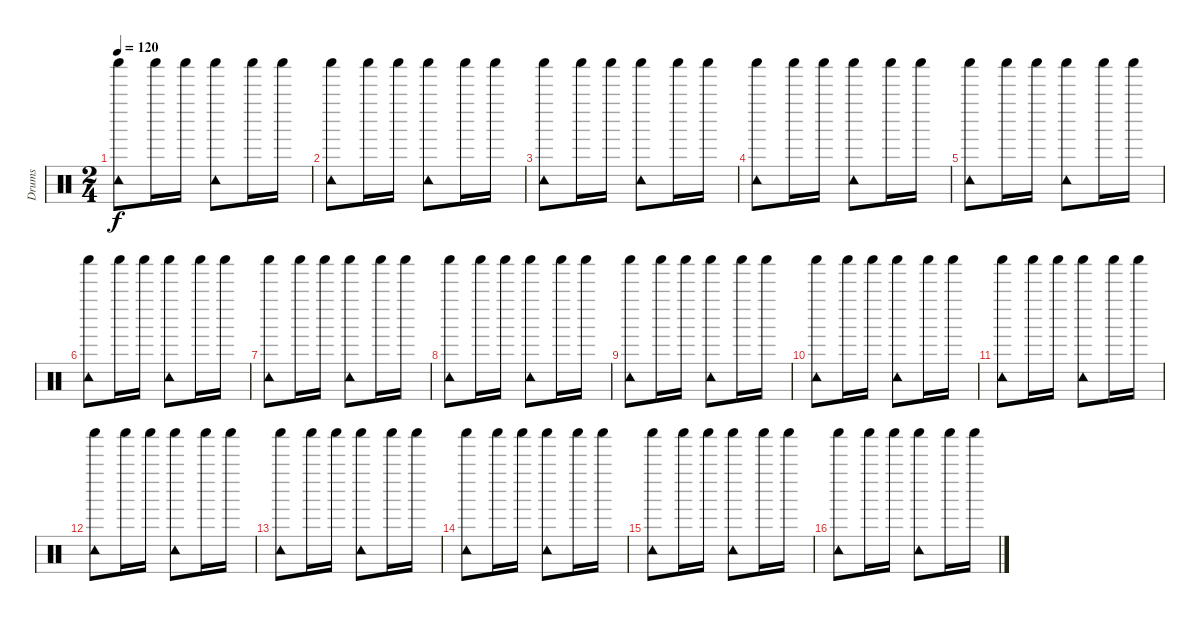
\track ("Drums" "Drums") {instrument percussion}
\staff {score}
\articulation defaults
\ts (2 4)
\tempo 120
\clef neutral
\ks c
("Shaker (hit)" "Tambourine (hit)").8{dy f} "Shaker (hit)".16 "Shaker (hit)".16 ("Shaker (hit)" "Tambourine (hit)").8 "Shaker (hit)".16 "Shaker (hit)".16 |
("Shaker (hit)" "Tambourine (hit)").8 "Shaker (hit)".16 "Shaker (hit)".16 ("Shaker (hit)" "Tambourine (hit)").8 "Shaker (hit)".16 "Shaker (hit)".16 |
("Shaker (hit)" "Tambourine (hit)").8 "Shaker (hit)".16 "Shaker (hit)".16 ("Shaker (hit)" "Tambourine (hit)").8 "Shaker (hit)".16 "Shaker (hit)".16 |
("Shaker (hit)" "Tambourine (hit)").8 "Shaker (hit)".16 "Shaker (hit)".16 ("Shaker (hit)" "Tambourine (hit)").8 "Shaker (hit)".16 "Shaker (hit)".16 |
("Shaker (hit)" "Tambourine (hit)").8 "Shaker (hit)".16 "Shaker (hit)".16 ("Shaker (hit)" "Tambourine (hit)").8 "Shaker (hit)".16 "Shaker (hit)".16 |
("Shaker (hit)" "Tambourine (hit)").8 "Shaker (hit)".16 "Shaker (hit)".16 ("Shaker (hit)" "Tambourine (hit)").8 "Shaker (hit)".16 "Shaker (hit)".16 |
("Shaker (hit)" "Tambourine (hit)").8 "Shaker (hit)".16 "Shaker (hit)".16 ("Shaker (hit)" "Tambourine (hit)").8 "Shaker (hit)".16 "Shaker (hit)".16 |
("Shaker (hit)" "Tambourine (hit)").8 "Shaker (hit)".16 "Shaker (hit)".16 ("Shaker (hit)" "Tambourine (hit)").8 "Shaker (hit)".16 "Shaker (hit)".16 |
("Shaker (hit)" "Tambourine (hit)").8 "Shaker (hit)".16 "Shaker (hit)".16 ("Shaker (hit)" "Tambourine (hit)").8 "Shaker (hit)".16 "Shaker (hit)".16 |
("Shaker (hit)" "Tambourine (hit)").8 "Shaker (hit)".16 "Shaker (hit)".16 ("Shaker (hit)" "Tambourine (hit)").8 "Shaker (hit)".16 "Shaker (hit)".16 |
("Shaker (hit)" "Tambourine (hit)").8 "Shaker (hit)".16 "Shaker (hit)".16 ("Shaker (hit)" "Tambourine (hit)").8 "Shaker (hit)".16 "Shaker (hit)".16 |
("Shaker (hit)" "Tambourine (hit)").8 "Shaker (hit)".16 "Shaker (hit)".16 ("Shaker (hit)" "Tambourine (hit)").8 "Shaker (hit)".16 "Shaker (hit)".16 |
("Shaker (hit)" "Tambourine (hit)").8 "Shaker (hit)".16 "Shaker (hit)".16 ("Shaker (hit)" "Tambourine (hit)").8 "Shaker (hit)".16 "Shaker (hit)".16 |
("Shaker (hit)" "Tambourine (hit)").8 "Shaker (hit)".16 "Shaker (hit)".16 ("Shaker (hit)" "Tambourine (hit)").8 "Shaker (hit)".16 "Shaker (hit)".16 |
("Shaker (hit)" "Tambourine (hit)").8 "Shaker (hit)".16 "Shaker (hit)".16 ("Shaker (hit)" "Tambourine (hit)").8 "Shaker (hit)".16 "Shaker (hit)".16 |
("Shaker (hit)" "Tambourine (hit)").8 "Shaker (hit)".16 "Shaker (hit)".16 ("Shaker (hit)" "Tambourine (hit)").8 "Shaker (hit)".16 "Shaker (hit)".16
